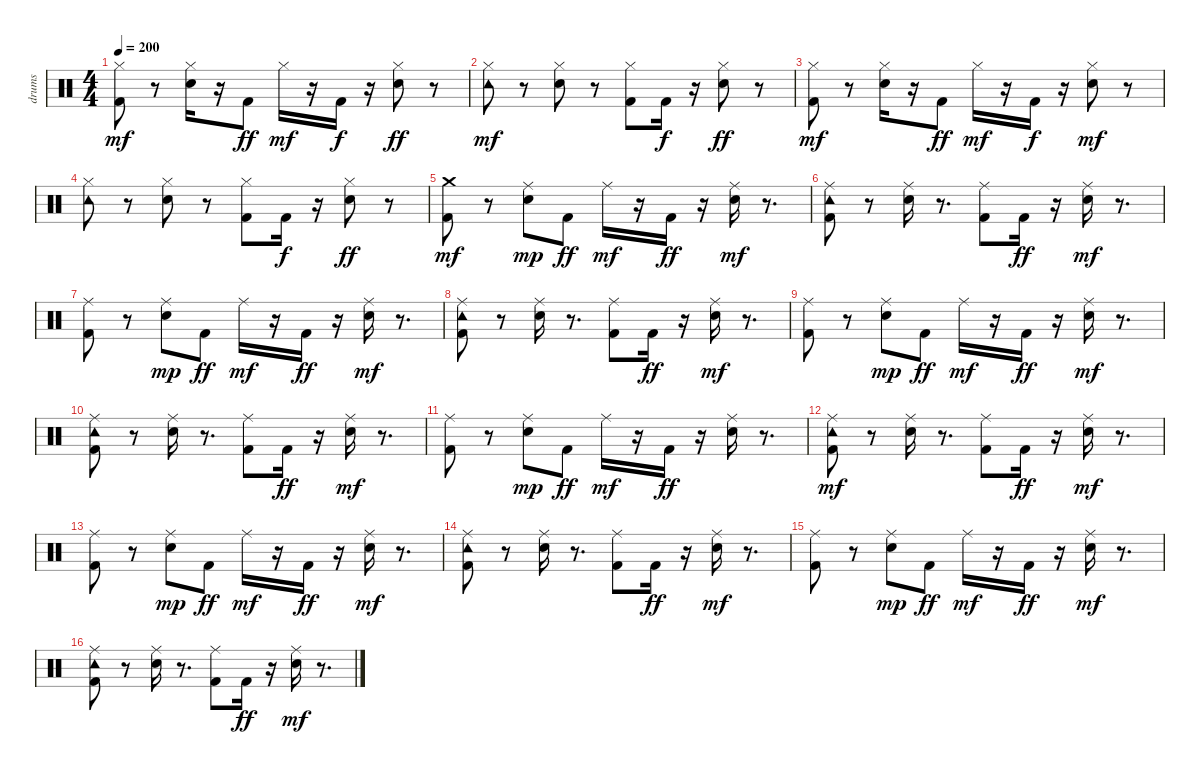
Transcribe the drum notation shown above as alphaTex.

\track ("drums" "drums") {instrument percussion}
\staff {score}
\articulation defaults
\ts (4 4)
\tempo 200
\clef neutral
\ks c
("Kick (hit) 2" "Hi-Hat (closed)").8{dy mf} r.8 ("Hi-Hat (closed)" "Snare (hit) 2").16 r.16 "Kick (hit) 2".8{dy ff} "Hi-Hat (closed)".16{dy mf} r.16 "Kick (hit) 2".16{dy f} r.16 ("Hi-Hat (closed)" "Snare (hit) 2").8{dy ff} r.8 |
("Tambourine (hit)" "Hi-Hat (closed)").8{dy mf} r.8 ("Snare (hit) 2" "Hi-Hat (closed)").8 r.8 ("Kick (hit) 2" "Hi-Hat (closed)").8 "Kick (hit) 2".16{dy f} r.16 ("Snare (hit) 2" "Hi-Hat (closed)").8{dy ff} r.8 |
("Hi-Hat (closed)" "Kick (hit) 2").8{dy mf} r.8 ("Hi-Hat (closed)" "Snare (hit) 2").16 r.16 "Kick (hit) 2".8{dy ff} "Hi-Hat (closed)".16{dy mf} r.16 "Kick (hit) 2".16{dy f} r.16 ("Snare (hit) 2" "Hi-Hat (closed)").8{dy mf} r.8 |
("Tambourine (hit)" "Hi-Hat (closed)").8 r.8 ("Snare (hit) 2" "Hi-Hat (closed)").8 r.8 ("Kick (hit) 2" "Hi-Hat (closed)").8 "Kick (hit) 2".16{dy f} r.16 ("Snare (hit) 2" "Hi-Hat (closed)").8{dy ff} r.8 |
("Kick (hit) 2" "Crash medium (hit)").8{dy mf} r.8 ("Snare (hit) 2" "Ride (middle)").8{dy mp} "Kick (hit) 2".8{dy ff} "Ride (middle)".16{dy mf} r.16 "Kick (hit) 2".16{dy ff} r.16 ("Snare (hit) 2" "Ride (middle)").16{dy mf} r.8{d} |
("Tambourine (hit)" "Kick (hit) 2" "Ride (middle)").8 r.8 ("Snare (hit) 2" "Ride (middle)").16 r.8{d} ("Kick (hit) 2" "Ride (middle)").8 "Kick (hit) 2".16{dy ff} r.16 ("Snare (hit) 2" "Ride (middle)").16{dy mf} r.8{d} |
("Kick (hit) 2" "Ride (middle)").8 r.8 ("Snare (hit) 2" "Ride (middle)").8{dy mp} "Kick (hit) 2".8{dy ff} "Ride (middle)".16{dy mf} r.16 "Kick (hit) 2".16{dy ff} r.16 ("Snare (hit) 2" "Ride (middle)").16{dy mf} r.8{d} |
("Tambourine (hit)" "Kick (hit) 2" "Ride (middle)").8 r.8 ("Snare (hit) 2" "Ride (middle)").16 r.8{d} ("Kick (hit) 2" "Ride (middle)").8 "Kick (hit) 2".16{dy ff} r.16 ("Snare (hit) 2" "Ride (middle)").16{dy mf} r.8{d} |
("Kick (hit) 2" "Ride (middle)").8 r.8 ("Snare (hit) 2" "Ride (middle)").8{dy mp} "Kick (hit) 2".8{dy ff} "Ride (middle)".16{dy mf} r.16 "Kick (hit) 2".16{dy ff} r.16 ("Snare (hit) 2" "Ride (middle)").16{dy mf} r.8{d} |
("Tambourine (hit)" "Kick (hit) 2" "Ride (middle)").8 r.8 ("Snare (hit) 2" "Ride (middle)").16 r.8{d} ("Kick (hit) 2" "Ride (middle)").8 "Kick (hit) 2".16{dy ff} r.16 ("Snare (hit) 2" "Ride (middle)").16{dy mf} r.8{d} |
("Kick (hit) 2" "Ride (middle)").8 r.8 ("Snare (hit) 2" "Ride (middle)").8{dy mp} "Kick (hit) 2".8{dy ff} "Ride (middle)".16{dy mf} r.16 "Kick (hit) 2".16{dy ff} r.16 ("Ride (middle)" "Snare (hit) 2").16 r.8{d} |
("Tambourine (hit)" "Kick (hit) 2" "Ride (middle)").8{dy mf} r.8 ("Snare (hit) 2" "Ride (middle)").16 r.8{d} ("Kick (hit) 2" "Ride (middle)").8 "Kick (hit) 2".16{dy ff} r.16 ("Snare (hit) 2" "Ride (middle)").16{dy mf} r.8{d} |
("Kick (hit) 2" "Ride (middle)").8 r.8 ("Snare (hit) 2" "Ride (middle)").8{dy mp} "Kick (hit) 2".8{dy ff} "Ride (middle)".16{dy mf} r.16 "Kick (hit) 2".16{dy ff} r.16 ("Snare (hit) 2" "Ride (middle)").16{dy mf} r.8{d} |
("Tambourine (hit)" "Kick (hit) 2" "Ride (middle)").8 r.8 ("Snare (hit) 2" "Ride (middle)").16 r.8{d} ("Kick (hit) 2" "Ride (middle)").8 "Kick (hit) 2".16{dy ff} r.16 ("Snare (hit) 2" "Ride (middle)").16{dy mf} r.8{d} |
("Kick (hit) 2" "Ride (middle)").8 r.8 ("Snare (hit) 2" "Ride (middle)").8{dy mp} "Kick (hit) 2".8{dy ff} "Ride (middle)".16{dy mf} r.16 "Kick (hit) 2".16{dy ff} r.16 ("Snare (hit) 2" "Ride (middle)").16{dy mf} r.8{d} |
("Tambourine (hit)" "Kick (hit) 2" "Ride (middle)").8 r.8 ("Snare (hit) 2" "Ride (middle)").16 r.8{d} ("Kick (hit) 2" "Ride (middle)").8 "Kick (hit) 2".16{dy ff} r.16 ("Snare (hit) 2" "Ride (middle)").16{dy mf} r.8{d}
